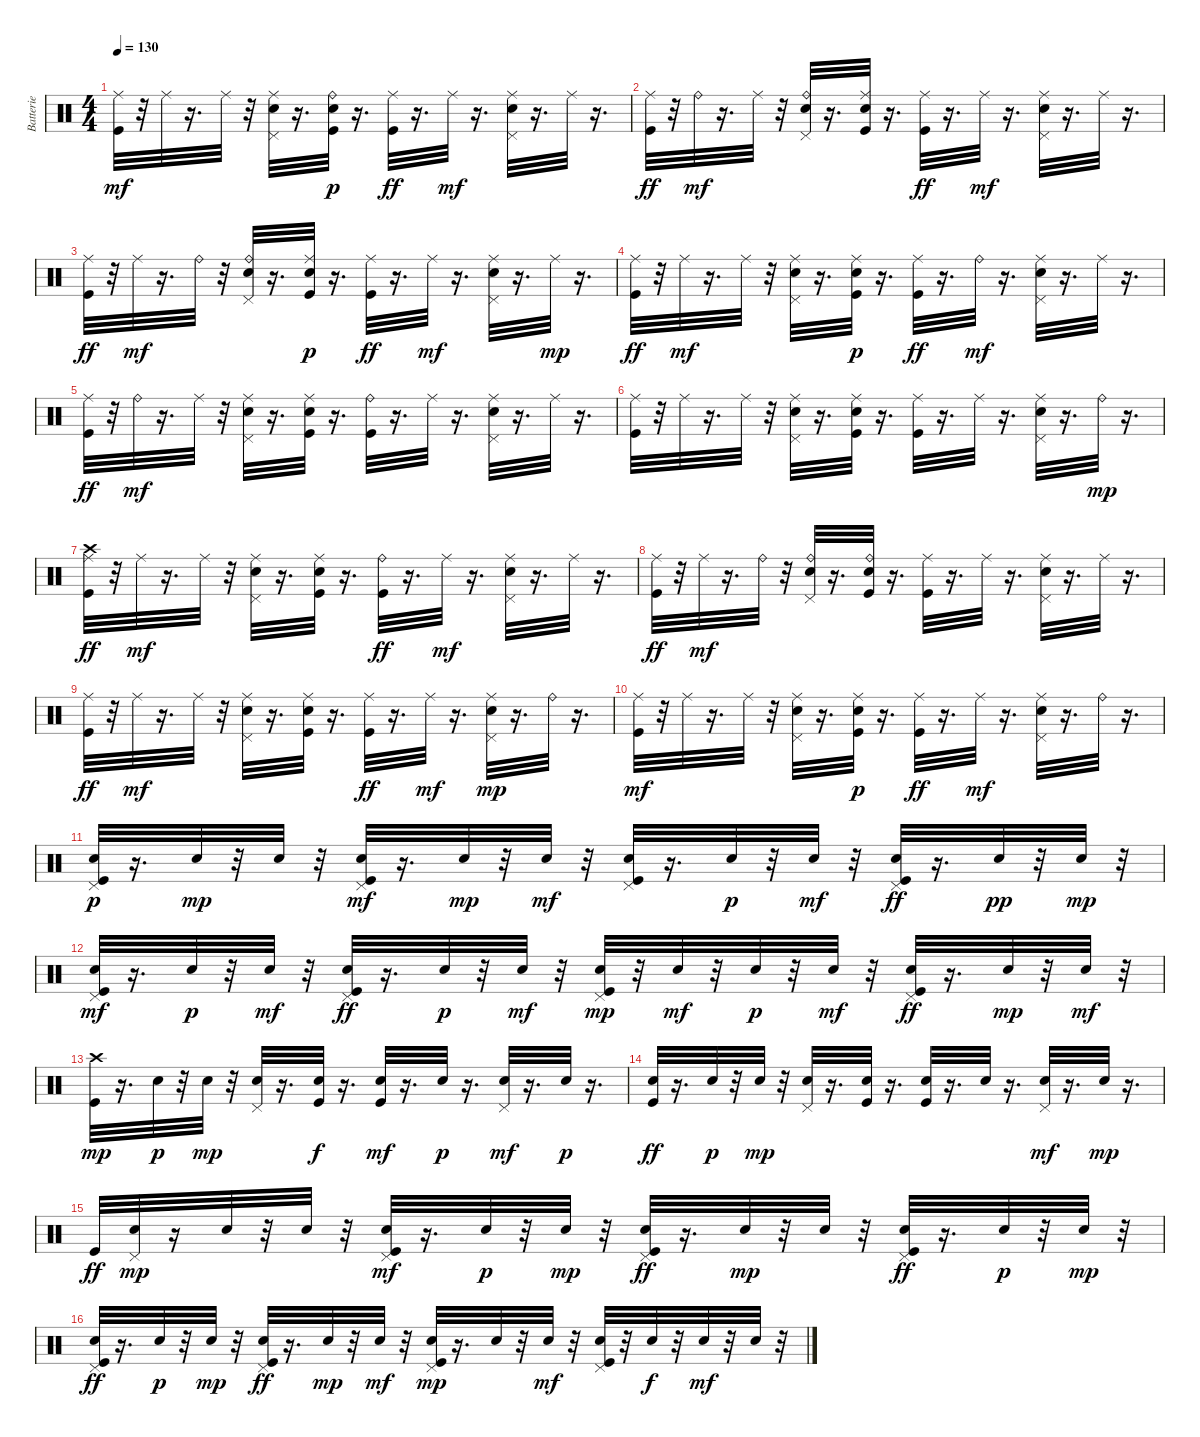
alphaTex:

\track ("Batterie" "Batterie") {instrument percussion}
\staff {score}
\articulation defaults
\ts (4 4)
\tempo 130
\clef neutral
\ks c
("Kick (hit)" "Ride (middle)").32{dy mf} r.32 "Ride (middle)".32 r.16{d} "Ride (middle)".32 r.32 ("Pedal Hi-Hat (hit)" "Ride (middle)" "Electric Snare (hit)").32 r.16{d} ("Electric Snare (hit)" "Ride (bell)" "Kick (hit)").32{dy p} r.16{d} ("Ride (middle)" "Kick (hit)").32{dy ff} r.16{d} "Ride (middle)".32{dy mf} r.16{d} ("Pedal Hi-Hat (hit)" "Electric Snare (hit)" "Ride (middle)").32 r.16{d} "Ride (middle)".32 r.16{d} |
("Ride (middle)" "Kick (hit)").32{dy ff} r.32 "Ride (bell)".32{dy mf} r.16{d} "Ride (middle)".32 r.32 ("Pedal Hi-Hat (hit)" "Ride (bell)" "Electric Snare (hit)").32 r.16{d} ("Kick (hit)" "Electric Snare (hit)" "Ride (middle)").32 r.16{d} ("Ride (middle)" "Kick (hit)").32{dy ff} r.16{d} "Ride (middle)".32{dy mf} r.16{d} ("Pedal Hi-Hat (hit)" "Ride (middle)" "Electric Snare (hit)").32 r.16{d} "Ride (middle)".32 r.16{d} |
("Ride (middle)" "Kick (hit)").32{dy ff} r.32 "Ride (middle)".32{dy mf} r.16{d} "Ride (bell)".32 r.32 ("Ride (bell)" "Pedal Hi-Hat (hit)" "Electric Snare (hit)").32 r.16{d} ("Electric Snare (hit)" "Ride (middle)" "Kick (hit)").32{dy p} r.16{d} ("Ride (middle)" "Kick (hit)").32{dy ff} r.16{d} "Ride (middle)".32{dy mf} r.16{d} ("Pedal Hi-Hat (hit)" "Ride (middle)" "Electric Snare (hit)").32 r.16{d} "Ride (middle)".32{dy mp} r.16{d} |
("Ride (middle)" "Kick (hit)").32{dy ff} r.32 "Ride (middle)".32{dy mf} r.16{d} "Ride (middle)".32 r.32 ("Pedal Hi-Hat (hit)" "Ride (middle)" "Electric Snare (hit)").32 r.16{d} ("Electric Snare (hit)" "Ride (middle)" "Kick (hit)").32{dy p} r.16{d} ("Kick (hit)" "Ride (middle)").32{dy ff} r.16{d} "Ride (bell)".32{dy mf} r.16{d} ("Pedal Hi-Hat (hit)" "Ride (middle)" "Electric Snare (hit)").32 r.16{d} "Ride (middle)".32 r.16{d} |
("Kick (hit)" "Ride (middle)").32{dy ff} r.32 "Ride (bell)".32{dy mf} r.16{d} "Ride (middle)".32 r.32 ("Electric Snare (hit)" "Pedal Hi-Hat (hit)" "Ride (middle)").32 r.16{d} ("Kick (hit)" "Electric Snare (hit)" "Ride (middle)").32 r.16{d} ("Kick (hit)" "Ride (bell)").32 r.16{d} "Ride (middle)".32 r.16{d} ("Electric Snare (hit)" "Ride (middle)" "Pedal Hi-Hat (hit)").32 r.16{d} "Ride (middle)".32 r.16{d} |
("Kick (hit)" "Ride (middle)").32 r.32 "Ride (middle)".32 r.16{d} "Ride (middle)".32 r.32 ("Pedal Hi-Hat (hit)" "Ride (middle)" "Electric Snare (hit)").32 r.16{d} ("Kick (hit)" "Electric Snare (hit)" "Ride (middle)").32 r.16{d} ("Kick (hit)" "Ride (middle)").32 r.16{d} "Ride (middle)".32 r.16{d} ("Pedal Hi-Hat (hit)" "Ride (middle)" "Electric Snare (hit)").32 r.16{d} "Ride (bell)".32{dy mp} r.16{d} |
("Crash high (hit)" "Ride (middle)" "Kick (hit)").32{dy ff} r.32 "Ride (middle)".32{dy mf} r.16{d} "Ride (middle)".32 r.32 ("Pedal Hi-Hat (hit)" "Ride (middle)" "Electric Snare (hit)").32 r.16{d} ("Electric Snare (hit)" "Kick (hit)" "Ride (middle)").32 r.16{d} ("Ride (bell)" "Kick (hit)").32{dy ff} r.16{d} "Ride (middle)".32{dy mf} r.16{d} ("Ride (middle)" "Electric Snare (hit)" "Pedal Hi-Hat (hit)").32 r.16{d} "Ride (middle)".32 r.16{d} |
("Kick (hit)" "Ride (middle)").32{dy ff} r.32 "Ride (middle)".32{dy mf} r.16{d} "Ride (bell)".32 r.32 ("Pedal Hi-Hat (hit)" "Ride (bell)" "Electric Snare (hit)").32 r.16{d} ("Kick (hit)" "Electric Snare (hit)" "Ride (bell)").32 r.16{d} ("Kick (hit)" "Ride (middle)").32 r.16{d} "Ride (middle)".32 r.16{d} ("Pedal Hi-Hat (hit)" "Ride (middle)" "Electric Snare (hit)").32 r.16{d} "Ride (middle)".32 r.16{d} |
("Ride (middle)" "Kick (hit)").32{dy ff} r.32 "Ride (middle)".32{dy mf} r.16{d} "Ride (middle)".32 r.32 ("Pedal Hi-Hat (hit)" "Ride (middle)" "Electric Snare (hit)").32 r.16{d} ("Kick (hit)" "Electric Snare (hit)" "Ride (middle)").32 r.16{d} ("Ride (middle)" "Kick (hit)").32{dy ff} r.16{d} "Ride (middle)".32{dy mf} r.16{d} ("Ride (middle)" "Pedal Hi-Hat (hit)" "Electric Snare (hit)").32{dy mp} r.16{d} "Ride (bell)".32 r.16{d} |
("Kick (hit)" "Ride (middle)").32{dy mf} r.32 "Ride (middle)".32 r.16{d} "Ride (middle)".32 r.32 ("Pedal Hi-Hat (hit)" "Electric Snare (hit)" "Ride (middle)").32 r.16{d} ("Electric Snare (hit)" "Ride (middle)" "Kick (hit)").32{dy p} r.16{d} ("Kick (hit)" "Ride (middle)").32{dy ff} r.16{d} "Ride (middle)".32{dy mf} r.16{d} ("Pedal Hi-Hat (hit)" "Electric Snare (hit)" "Ride (middle)").32 r.16{d} "Ride (bell)".32 r.16{d} |
("Electric Snare (hit)" "Kick (hit)" "Pedal Hi-Hat (hit)").32{dy p} r.16{d} "Electric Snare (hit)".32{dy mp} r.32 "Electric Snare (hit)".32 r.32 ("Kick (hit)" "Pedal Hi-Hat (hit)" "Electric Snare (hit)").32{dy mf} r.16{d} "Electric Snare (hit)".32{dy mp} r.32 "Electric Snare (hit)".32{dy mf} r.32 ("Kick (hit)" "Pedal Hi-Hat (hit)" "Electric Snare (hit)").32 r.16{d} "Electric Snare (hit)".32{dy p} r.32 "Electric Snare (hit)".32{dy mf} r.32 ("Pedal Hi-Hat (hit)" "Kick (hit)" "Electric Snare (hit)").32{dy ff} r.16{d} "Electric Snare (hit)".32{dy pp} r.32 "Electric Snare (hit)".32{dy mp} r.32 |
("Kick (hit)" "Electric Snare (hit)" "Pedal Hi-Hat (hit)").32{dy mf} r.16{d} "Electric Snare (hit)".32{dy p} r.32 "Electric Snare (hit)".32{dy mf} r.32 ("Pedal Hi-Hat (hit)" "Kick (hit)" "Electric Snare (hit)").32{dy ff} r.16{d} "Electric Snare (hit)".32{dy p} r.32 "Electric Snare (hit)".32{dy mf} r.32 ("Kick (hit)" "Electric Snare (hit)" "Pedal Hi-Hat (hit)").32{dy mp} r.32 "Electric Snare (hit)".32{dy mf} r.32 "Electric Snare (hit)".32{dy p} r.32 "Electric Snare (hit)".32{dy mf} r.32 ("Pedal Hi-Hat (hit)" "Kick (hit)" "Electric Snare (hit)").32{dy ff} r.16{d} "Electric Snare (hit)".32{dy mp} r.32 "Electric Snare (hit)".32{dy mf} r.32 |
("Kick (hit)" "Crash high (hit)").32{dy mp} r.16{d} "Electric Snare (hit)".32{dy p} r.32 "Electric Snare (hit)".32{dy mp} r.32 ("Pedal Hi-Hat (hit)" "Electric Snare (hit)").32 r.16{d} ("Electric Snare (hit)" "Kick (hit)").32{dy f} r.16{d} ("Kick (hit)" "Electric Snare (hit)").32{dy mf} r.16{d} "Electric Snare (hit)".32{dy p} r.16{d} ("Pedal Hi-Hat (hit)" "Electric Snare (hit)").32{dy mf} r.16{d} "Electric Snare (hit)".32{dy p} r.16{d} |
("Kick (hit)" "Electric Snare (hit)").32{dy ff} r.16{d} "Electric Snare (hit)".32{dy p} r.32 "Electric Snare (hit)".32{dy mp} r.32 ("Electric Snare (hit)" "Pedal Hi-Hat (hit)").32 r.16{d} ("Kick (hit)" "Electric Snare (hit)").32 r.16{d} ("Kick (hit)" "Electric Snare (hit)").32 r.16{d} "Electric Snare (hit)".32 r.16{d} ("Electric Snare (hit)" "Pedal Hi-Hat (hit)").32{dy mf} r.16{d} "Electric Snare (hit)".32{dy mp} r.16{d} |
"Kick (hit)".32{dy ff} ("Pedal Hi-Hat (hit)" "Electric Snare (hit)").32{dy mp} r.16 "Electric Snare (hit)".32 r.32 "Electric Snare (hit)".32 r.32 ("Kick (hit)" "Pedal Hi-Hat (hit)" "Electric Snare (hit)").32{dy mf} r.16{d} "Electric Snare (hit)".32{dy p} r.32 "Electric Snare (hit)".32{dy mp} r.32 ("Pedal Hi-Hat (hit)" "Electric Snare (hit)" "Kick (hit)").32{dy ff} r.16{d} "Electric Snare (hit)".32{dy mp} r.32 "Electric Snare (hit)".32 r.32 ("Pedal Hi-Hat (hit)" "Electric Snare (hit)" "Kick (hit)").32{dy ff} r.16{d} "Electric Snare (hit)".32{dy p} r.32 "Electric Snare (hit)".32{dy mp} r.32 |
("Pedal Hi-Hat (hit)" "Electric Snare (hit)" "Kick (hit)").32{dy ff} r.16{d} "Electric Snare (hit)".32{dy p} r.32 "Electric Snare (hit)".32{dy mp} r.32 ("Pedal Hi-Hat (hit)" "Electric Snare (hit)" "Kick (hit)").32{dy ff} r.16{d} "Electric Snare (hit)".32{dy mp} r.32 "Electric Snare (hit)".32{dy mf} r.32 ("Kick (hit)" "Pedal Hi-Hat (hit)" "Electric Snare (hit)").32{dy mp} r.16{d} "Electric Snare (hit)".32 r.32 "Electric Snare (hit)".32{dy mf} r.32 ("Kick (hit)" "Pedal Hi-Hat (hit)" "Electric Snare (hit)").32 r.32 "Electric Snare (hit)".32{dy f} r.32 "Electric Snare (hit)".32{dy mf} r.32 "Electric Snare (hit)".32 r.32
